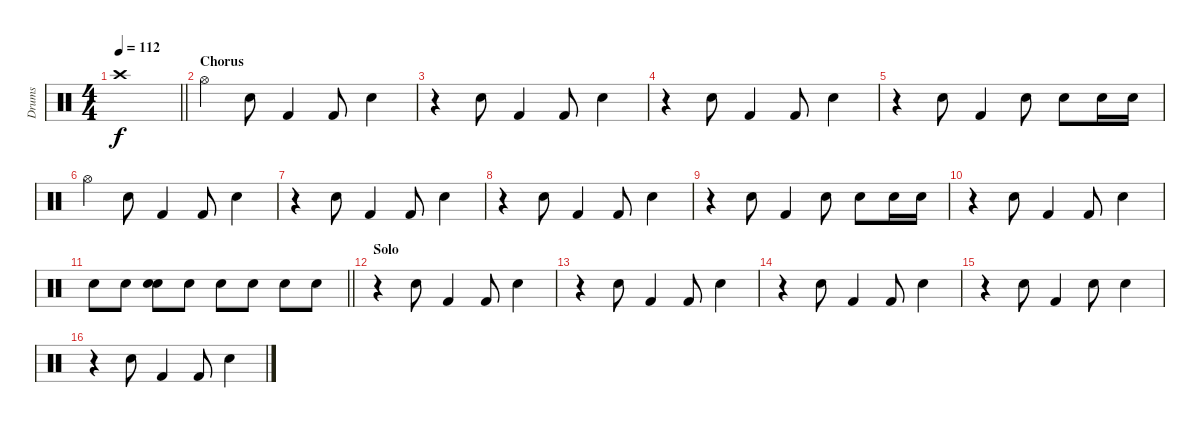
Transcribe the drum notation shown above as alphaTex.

\track ("Drums" "Drums") {instrument percussion}
\staff {score}
\articulation defaults
\ts (4 4)
\tempo 112
\clef neutral
\barLineRight lightlight
\ks c "Crash high (hit)".1{dy f}
|
\section ("" "Chorus")
"Hi-Hat (open)".4 "Electric Snare (hit)".8 "Kick (hit) 2".4 "Kick (hit) 2".8 "Electric Snare (hit)".4 |
r.4 "Electric Snare (hit)".8 "Kick (hit) 2".4 "Kick (hit) 2".8 "Electric Snare (hit)".4 |
r.4 "Electric Snare (hit)".8 "Kick (hit) 2".4 "Kick (hit) 2".8 "Electric Snare (hit)".4 |
r.4 "Electric Snare (hit)".8 "Kick (hit) 2".4 "Electric Snare (hit)".8 "Electric Snare (hit)".8 "Electric Snare (hit)".16 "Electric Snare (hit)".16 |
"Hi-Hat (open)".4 "Electric Snare (hit)".8 "Kick (hit) 2".4 "Kick (hit) 2".8 "Electric Snare (hit)".4 |
r.4 "Electric Snare (hit)".8 "Kick (hit) 2".4 "Kick (hit) 2".8 "Electric Snare (hit)".4 |
r.4 "Electric Snare (hit)".8 "Kick (hit) 2".4 "Kick (hit) 2".8 "Electric Snare (hit)".4 |
r.4 "Electric Snare (hit)".8 "Kick (hit) 2".4 "Electric Snare (hit)".8 "Electric Snare (hit)".8 "Electric Snare (hit)".16 "Electric Snare (hit)".16 |
r.4 "Electric Snare (hit)".8 "Kick (hit) 2".4 "Kick (hit) 2".8 "Electric Snare (hit)".4 |
\barLineRight lightlight "Electric Snare (hit)".8 "Electric Snare (hit)".8
("Electric Snare (hit)" "Snare (hit)").8 "Electric Snare (hit)".8 "Electric Snare (hit)".8 "Electric Snare (hit)".8 "Electric Snare (hit)".8 "Electric Snare (hit)".8 |
\section ("" "Solo")
r.4 "Electric Snare (hit)".8 "Kick (hit) 2".4 "Kick (hit) 2".8 "Electric Snare (hit)".4 |
r.4 "Electric Snare (hit)".8 "Kick (hit) 2".4 "Kick (hit) 2".8 "Electric Snare (hit)".4 |
r.4 "Electric Snare (hit)".8 "Kick (hit) 2".4 "Kick (hit) 2".8 "Electric Snare (hit)".4 |
r.4 "Electric Snare (hit)".8 "Kick (hit) 2".4 "Electric Snare (hit)".8 "Electric Snare (hit)".4 |
r.4 "Electric Snare (hit)".8 "Kick (hit) 2".4 "Kick (hit) 2".8 "Electric Snare (hit)".4
